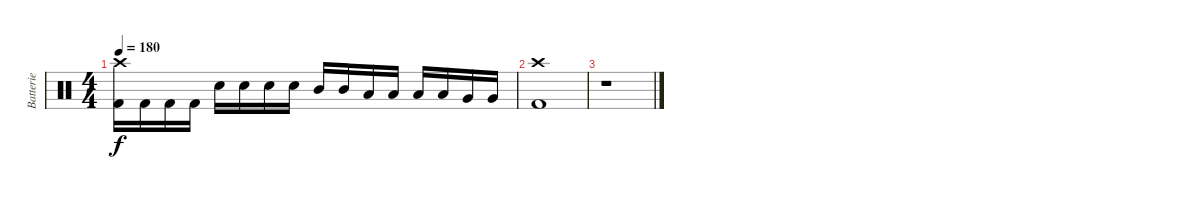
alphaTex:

\track ("Batterie" "Batterie") {instrument percussion}
\staff {score}
\articulation defaults
\ts (4 4)
\tempo 180
\clef neutral
\ks c
("Crash high (hit)" "Kick (hit) 2").16{dy f} "Kick (hit) 2".16 "Kick (hit) 2".16 "Kick (hit) 2".16 "Electric Snare (hit)".16 "Electric Snare (hit)".16 "Electric Snare (hit)".16 "Electric Snare (hit)".16 "Mid Tom (hit)".16 "Mid Tom (hit)".16 "Low Tom (hit)".16 "Low Tom (hit)".16 "Low Tom (hit)".16 "Low Tom (hit)".16 "Very Low Tom (hit)".16 "Very Low Tom (hit)".16 |
("Crash high (hit)" "Kick (hit) 2").1 |
r.1
